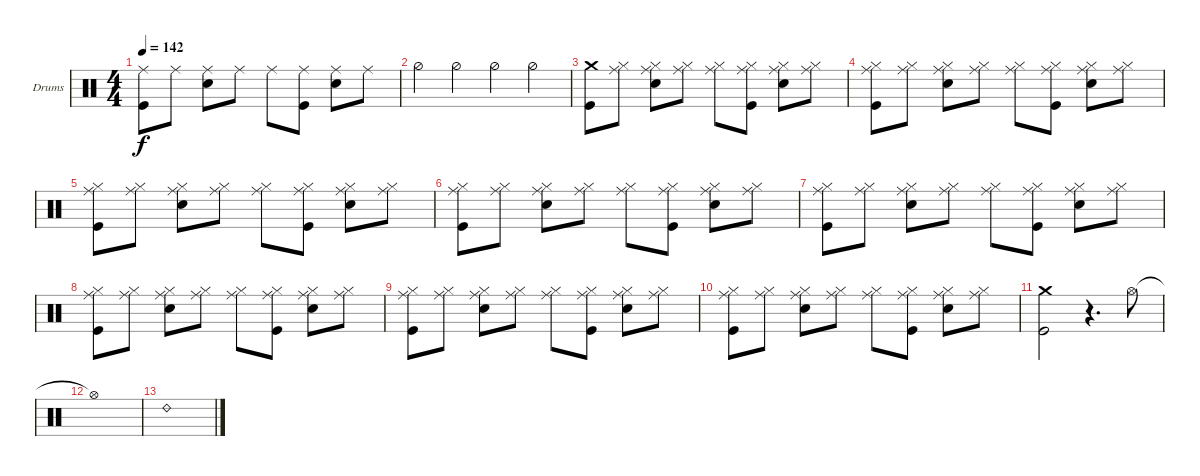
\bracketExtendMode groupsimilarinstruments
\firstSystemTrackNameOrientation horizontal
\otherSystemsTrackNameOrientation horizontal
\track ("Drumkit" "Drums") {instrument percussion}
\staff {score}
\articulation defaults
\ts (4 4)
\tempo 142
\clef neutral
\ks c
("Ride (middle)" "Kick (hit)").8{dy f} "Ride (middle)".8 ("Ride (middle)" "Snare (hit) 2").8 "Ride (middle)".8 "Ride (middle)".8 ("Ride (middle)" "Kick (hit)").8 ("Ride (middle)" "Snare (hit) 2").8 "Ride (middle)".8 |
"Hi-Hat (half)".4 "Hi-Hat (half)".4 "Hi-Hat (half)".4 "Hi-Hat (half)".4 |
("Kick (hit)" "Crash medium (hit)").8 ("Ride (middle)" "Hi-Hat (closed)").8 ("Ride (middle)" "Snare (hit) 2" "Hi-Hat (closed)").8 ("Ride (middle)" "Hi-Hat (closed)").8 ("Ride (middle)" "Hi-Hat (closed)").8 ("Ride (middle)" "Kick (hit)" "Hi-Hat (closed)").8 ("Ride (middle)" "Snare (hit) 2" "Hi-Hat (closed)").8 ("Ride (middle)" "Hi-Hat (closed)").8 |
("Ride (middle)" "Kick (hit)" "Hi-Hat (closed)").8 ("Ride (middle)" "Hi-Hat (closed)").8 ("Ride (middle)" "Snare (hit) 2" "Hi-Hat (closed)").8 ("Ride (middle)" "Hi-Hat (closed)").8 ("Ride (middle)" "Hi-Hat (closed)").8 ("Ride (middle)" "Kick (hit)" "Hi-Hat (closed)").8 ("Ride (middle)" "Snare (hit) 2" "Hi-Hat (closed)").8 ("Ride (middle)" "Hi-Hat (closed)").8 |
("Ride (middle)" "Kick (hit)" "Hi-Hat (closed)").8 ("Ride (middle)" "Hi-Hat (closed)").8 ("Ride (middle)" "Snare (hit) 2" "Hi-Hat (closed)").8 ("Ride (middle)" "Hi-Hat (closed)").8 ("Ride (middle)" "Hi-Hat (closed)").8 ("Ride (middle)" "Kick (hit)" "Hi-Hat (closed)").8 ("Ride (middle)" "Snare (hit) 2" "Hi-Hat (closed)").8 ("Ride (middle)" "Hi-Hat (closed)").8 |
("Ride (middle)" "Kick (hit)" "Hi-Hat (closed)").8 ("Ride (middle)" "Hi-Hat (closed)").8 ("Ride (middle)" "Snare (hit) 2" "Hi-Hat (closed)").8 ("Ride (middle)" "Hi-Hat (closed)").8 ("Ride (middle)" "Hi-Hat (closed)").8 ("Ride (middle)" "Kick (hit)" "Hi-Hat (closed)").8 ("Ride (middle)" "Snare (hit) 2" "Hi-Hat (closed)").8 ("Ride (middle)" "Hi-Hat (closed)").8 |
("Kick (hit)" "Hi-Hat (closed)" "Ride (middle)").8 ("Ride (middle)" "Hi-Hat (closed)").8 ("Ride (middle)" "Snare (hit) 2" "Hi-Hat (closed)").8 ("Ride (middle)" "Hi-Hat (closed)").8 ("Ride (middle)" "Hi-Hat (closed)").8 ("Ride (middle)" "Kick (hit)" "Hi-Hat (closed)").8 ("Ride (middle)" "Snare (hit) 2" "Hi-Hat (closed)").8 ("Ride (middle)" "Hi-Hat (closed)").8 |
("Ride (middle)" "Kick (hit)" "Hi-Hat (closed)").8 ("Ride (middle)" "Hi-Hat (closed)").8 ("Ride (middle)" "Snare (hit) 2" "Hi-Hat (closed)").8 ("Ride (middle)" "Hi-Hat (closed)").8 ("Ride (middle)" "Hi-Hat (closed)").8 ("Ride (middle)" "Kick (hit)" "Hi-Hat (closed)").8 ("Ride (middle)" "Snare (hit) 2" "Hi-Hat (closed)").8 ("Ride (middle)" "Hi-Hat (closed)").8 |
("Ride (middle)" "Kick (hit)" "Hi-Hat (closed)").8 ("Ride (middle)" "Hi-Hat (closed)").8 ("Ride (middle)" "Snare (hit) 2" "Hi-Hat (closed)").8 ("Ride (middle)" "Hi-Hat (closed)").8 ("Ride (middle)" "Hi-Hat (closed)").8 ("Ride (middle)" "Kick (hit)" "Hi-Hat (closed)").8 ("Ride (middle)" "Snare (hit) 2" "Hi-Hat (closed)").8 ("Ride (middle)" "Hi-Hat (closed)").8 |
("Ride (middle)" "Kick (hit)" "Hi-Hat (closed)").8 ("Ride (middle)" "Hi-Hat (closed)").8 ("Ride (middle)" "Snare (hit) 2" "Hi-Hat (closed)").8 ("Ride (middle)" "Hi-Hat (closed)").8 ("Ride (middle)" "Hi-Hat (closed)").8 ("Ride (middle)" "Kick (hit)" "Hi-Hat (closed)").8 ("Ride (middle)" "Snare (hit) 2" "Hi-Hat (closed)").8 ("Ride (middle)" "Hi-Hat (closed)").8 |
("Crash medium (hit)" "Kick (hit)").2 r.4{d} "Hi-Hat (open)".8 |
"Hi-Hat (open)"{t}.1 |
"Ride (bell) 2".1
